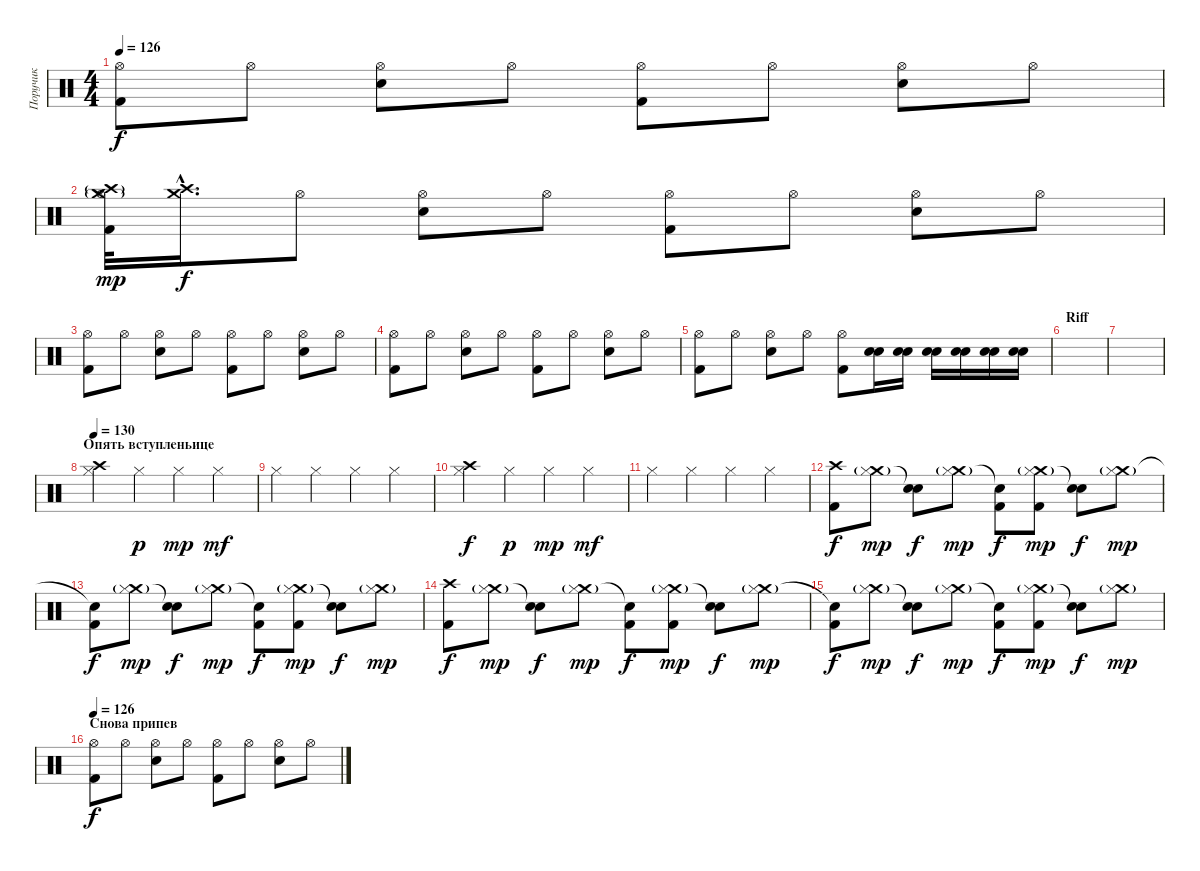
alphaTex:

\track ("Поручик" "Поручик") {instrument percussion}
\staff {score}
\articulation defaults
\ts (4 4)
\tempo 126
\clef neutral
\ks c
("Hi-Hat (open)" "Kick (hit) 2").8{dy f} "Hi-Hat (open)".8 ("Hi-Hat (open)" "Snare (hit) 2").8 "Hi-Hat (open)".8 ("Hi-Hat (open)" "Kick (hit) 2").8 "Hi-Hat (open)".8 ("Hi-Hat (open)" "Snare (hit) 2").8 "Hi-Hat (open)".8 |
("Hi-Hat (open)" "Kick (hit) 2" "Crash medium (hit)"{g} "Crash high (hit)"{g}).32{dy mp} ("Crash medium (hit)"{hac} "Crash high (hit)"{hac}).16{d dy f} "Hi-Hat (open)".8 ("Hi-Hat (open)" "Snare (hit) 2").8 "Hi-Hat (open)".8 ("Hi-Hat (open)" "Kick (hit) 2").8 "Hi-Hat (open)".8 ("Hi-Hat (open)" "Snare (hit) 2").8 "Hi-Hat (open)".8 |
("Hi-Hat (open)" "Kick (hit) 2").8 "Hi-Hat (open)".8 ("Hi-Hat (open)" "Snare (hit) 2").8 "Hi-Hat (open)".8 ("Hi-Hat (open)" "Kick (hit) 2").8 "Hi-Hat (open)".8 ("Hi-Hat (open)" "Snare (hit) 2").8 "Hi-Hat (open)".8 |
("Hi-Hat (open)" "Kick (hit) 2").8 "Hi-Hat (open)".8 ("Hi-Hat (open)" "Snare (hit) 2").8 "Hi-Hat (open)".8 ("Hi-Hat (open)" "Kick (hit) 2").8 "Hi-Hat (open)".8 ("Hi-Hat (open)" "Snare (hit) 2").8 "Hi-Hat (open)".8 |
("Hi-Hat (open)" "Kick (hit) 2").8 "Hi-Hat (open)".8 ("Hi-Hat (open)" "Snare (hit) 2").8 "Hi-Hat (open)".8 ("Hi-Hat (open)" "Kick (hit) 2").8 ("Electric Snare (hit)" "Snare (hit) 2").16 ("Electric Snare (hit)" "Snare (hit) 2").16 ("Electric Snare (hit)" "Snare (hit) 2").16 ("Electric Snare (hit)" "Snare (hit) 2").16 ("Electric Snare (hit)" "Snare (hit) 2").16 ("Electric Snare (hit)" "Snare (hit) 2").16 |
\section ("" "Riff")
|
|
\section ("" "Опять вступленьице")
\tempo 130
("Crash high (hit)" "Hi-Hat (closed)").4 "Hi-Hat (closed)".4{dy p} "Hi-Hat (closed)".4{dy mp} "Hi-Hat (closed)".4{dy mf} |
"Hi-Hat (closed)".4 "Hi-Hat (closed)".4 "Hi-Hat (closed)".4 "Hi-Hat (closed)".4 |
("Crash high (hit)" "Hi-Hat (closed)").4{dy f} "Hi-Hat (closed)".4{dy p} "Hi-Hat (closed)".4{dy mp} "Hi-Hat (closed)".4{dy mf} |
"Hi-Hat (closed)".4 "Hi-Hat (closed)".4 "Hi-Hat (closed)".4 "Hi-Hat (closed)".4 |
("Kick (hit) 2" "Crash high (hit)").8{dy f} ("Crash medium (hit)"{g} "Hi-Hat (closed)").8{dy mp} ("Snare (hit) 2" "Snare (hit)"{t}).8{dy f} ("Crash medium (hit)"{g} "Hi-Hat (closed)").8{dy mp} ("Kick (hit) 2" "Snare (hit)"{t}).8{dy f} ("Kick (hit) 2" "Crash medium (hit)"{g} "Hi-Hat (closed)").8{dy mp} ("Snare (hit) 2" "Snare (hit)"{t}).8{dy f} ("Crash medium (hit)"{g} "Hi-Hat (closed)").8{dy mp} |
("Kick (hit) 2" "Snare (hit)"{t}).8{dy f} ("Crash medium (hit)"{g} "Hi-Hat (closed)").8{dy mp} ("Snare (hit) 2" "Snare (hit)"{t}).8{dy f} ("Crash medium (hit)"{g} "Hi-Hat (closed)").8{dy mp} ("Kick (hit) 2" "Snare (hit)"{t}).8{dy f} ("Kick (hit) 2" "Crash medium (hit)"{g} "Hi-Hat (closed)").8{dy mp} ("Snare (hit) 2" "Snare (hit)"{t}).8{dy f} ("Crash medium (hit)"{g} "Hi-Hat (closed)").8{dy mp} |
("Kick (hit) 2" "Crash high (hit)").8{dy f} ("Crash medium (hit)"{g} "Hi-Hat (closed)").8{dy mp} ("Snare (hit) 2" "Snare (hit)"{t}).8{dy f} ("Crash medium (hit)"{g} "Hi-Hat (closed)").8{dy mp} ("Kick (hit) 2" "Snare (hit)"{t}).8{dy f} ("Kick (hit) 2" "Crash medium (hit)"{g} "Hi-Hat (closed)").8{dy mp} ("Snare (hit) 2" "Snare (hit)"{t}).8{dy f} ("Crash medium (hit)"{g} "Hi-Hat (closed)").8{dy mp} |
("Kick (hit) 2" "Snare (hit)"{t}).8{dy f} ("Crash medium (hit)"{g} "Hi-Hat (closed)").8{dy mp} ("Snare (hit) 2" "Snare (hit)"{t}).8{dy f} ("Crash medium (hit)"{g} "Hi-Hat (closed)").8{dy mp} ("Kick (hit) 2" "Snare (hit)"{t}).8{dy f} ("Kick (hit) 2" "Crash medium (hit)"{g} "Hi-Hat (closed)").8{dy mp} ("Snare (hit) 2" "Snare (hit)"{t}).8{dy f} ("Crash medium (hit)"{g} "Hi-Hat (closed)").8{dy mp} |
\section ("" "Снова припев")
\tempo 126
("Hi-Hat (open)" "Kick (hit) 2").8{dy f} "Hi-Hat (open)".8 ("Hi-Hat (open)" "Snare (hit) 2").8 "Hi-Hat (open)".8 ("Hi-Hat (open)" "Kick (hit) 2").8 "Hi-Hat (open)".8 ("Hi-Hat (open)" "Snare (hit) 2").8 "Hi-Hat (open)".8
